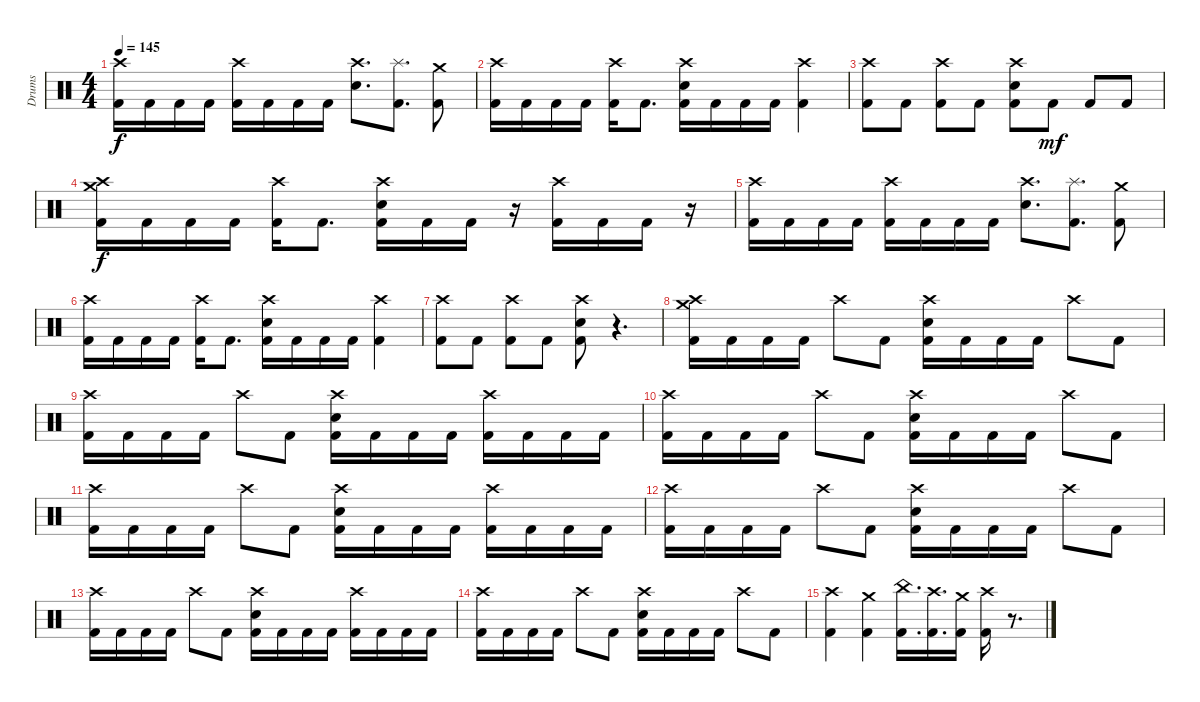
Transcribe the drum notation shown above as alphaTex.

\track ("Drums" "Drums") {instrument percussion}
\staff {score}
\articulation defaults
\ts (4 4)
\tempo 145
\clef neutral
\ks c
("Crash high (hit)" "Kick (hit) 2").16{dy f} "Kick (hit) 2".16 "Kick (hit) 2".16 "Kick (hit) 2".16 ("Crash high (hit)" "Kick (hit) 2").16 "Kick (hit) 2".16 "Kick (hit) 2".16 "Kick (hit) 2".16 ("Crash high (hit)" "Electric Snare (hit)").8{d} ("Splash (hit)" "Kick (hit) 2").8{d} ("Crash medium (hit)" "Kick (hit) 2").8 |
("Crash high (hit)" "Kick (hit) 2").16 "Kick (hit) 2".16 "Kick (hit) 2".16 "Kick (hit) 2".16 ("Crash high (hit)" "Kick (hit) 2").16 "Kick (hit) 2".8{d} ("Crash high (hit)" "Electric Snare (hit)" "Kick (hit) 2").16 "Kick (hit) 2".16 "Kick (hit) 2".16 "Kick (hit) 2".16 ("Crash high (hit)" "Kick (hit) 2").4 |
("Crash high (hit)" "Kick (hit) 2").8 "Kick (hit) 2".8 ("Crash high (hit)" "Kick (hit) 2").8 "Kick (hit) 2".8 ("Crash high (hit)" "Electric Snare (hit)" "Kick (hit) 2").8 "Kick (hit) 2".8{dy mf} "Kick (hit) 2".8 "Kick (hit) 2".8 |
("Crash high (hit)" "Crash medium (hit)" "Kick (hit) 2").16{dy f} "Kick (hit) 2".16 "Kick (hit) 2".16 "Kick (hit) 2".16 ("Crash high (hit)" "Kick (hit) 2").16 "Kick (hit) 2".8{d} ("Crash high (hit)" "Electric Snare (hit)" "Kick (hit) 2").16 "Kick (hit) 2".16 "Kick (hit) 2".16 r.16 ("Crash high (hit)" "Kick (hit) 2").16 "Kick (hit) 2".16 "Kick (hit) 2".16 r.16 |
("Crash high (hit)" "Kick (hit) 2").16 "Kick (hit) 2".16 "Kick (hit) 2".16 "Kick (hit) 2".16 ("Crash high (hit)" "Kick (hit) 2").16 "Kick (hit) 2".16 "Kick (hit) 2".16 "Kick (hit) 2".16 ("Crash high (hit)" "Electric Snare (hit)").8{d} ("Splash (hit)" "Kick (hit) 2").8{d} ("Crash medium (hit)" "Kick (hit) 2").8 |
("Crash high (hit)" "Kick (hit) 2").16 "Kick (hit) 2".16 "Kick (hit) 2".16 "Kick (hit) 2".16 ("Crash high (hit)" "Kick (hit) 2").16 "Kick (hit) 2".8{d} ("Crash high (hit)" "Electric Snare (hit)" "Kick (hit) 2").16 "Kick (hit) 2".16 "Kick (hit) 2".16 "Kick (hit) 2".16 ("Crash high (hit)" "Kick (hit) 2").4 |
("Crash high (hit)" "Kick (hit) 2").8 "Kick (hit) 2".8 ("Crash high (hit)" "Kick (hit) 2").8 "Kick (hit) 2".8 ("Crash high (hit)" "Electric Snare (hit)" "Kick (hit) 2").8 r.4{d} |
("Crash high (hit)" "Crash medium (hit)" "Kick (hit) 2").16 "Kick (hit) 2".16 "Kick (hit) 2".16 "Kick (hit) 2".16 "Crash high (hit)".8 "Kick (hit) 2".8 ("Crash high (hit)" "Electric Snare (hit)" "Kick (hit) 2").16 "Kick (hit) 2".16 "Kick (hit) 2".16 "Kick (hit) 2".16 "Crash high (hit)".8 "Kick (hit) 2".8 |
("Crash high (hit)" "Kick (hit) 2").16 "Kick (hit) 2".16 "Kick (hit) 2".16 "Kick (hit) 2".16 "Crash high (hit)".8 "Kick (hit) 2".8 ("Crash high (hit)" "Electric Snare (hit)" "Kick (hit) 2").16 "Kick (hit) 2".16 "Kick (hit) 2".16 "Kick (hit) 2".16 ("Crash high (hit)" "Kick (hit) 2").16 "Kick (hit) 2".16 "Kick (hit) 2".16 "Kick (hit) 2".16 |
("Crash high (hit)" "Kick (hit) 2").16 "Kick (hit) 2".16 "Kick (hit) 2".16 "Kick (hit) 2".16 "Crash high (hit)".8 "Kick (hit) 2".8 ("Crash high (hit)" "Electric Snare (hit)" "Kick (hit) 2").16 "Kick (hit) 2".16 "Kick (hit) 2".16 "Kick (hit) 2".16 "Crash high (hit)".8 "Kick (hit) 2".8 |
("Crash high (hit)" "Kick (hit) 2").16 "Kick (hit) 2".16 "Kick (hit) 2".16 "Kick (hit) 2".16 "Crash high (hit)".8 "Kick (hit) 2".8 ("Crash high (hit)" "Electric Snare (hit)" "Kick (hit) 2").16 "Kick (hit) 2".16 "Kick (hit) 2".16 "Kick (hit) 2".16 ("Crash high (hit)" "Kick (hit) 2").16 "Kick (hit) 2".16 "Kick (hit) 2".16 "Kick (hit) 2".16 |
("Crash high (hit)" "Kick (hit) 2").16 "Kick (hit) 2".16 "Kick (hit) 2".16 "Kick (hit) 2".16 "Crash high (hit)".8 "Kick (hit) 2".8 ("Crash high (hit)" "Electric Snare (hit)" "Kick (hit) 2").16 "Kick (hit) 2".16 "Kick (hit) 2".16 "Kick (hit) 2".16 "Crash high (hit)".8 "Kick (hit) 2".8 |
("Crash high (hit)" "Kick (hit) 2").16 "Kick (hit) 2".16 "Kick (hit) 2".16 "Kick (hit) 2".16 "Crash high (hit)".8 "Kick (hit) 2".8 ("Crash high (hit)" "Electric Snare (hit)" "Kick (hit) 2").16 "Kick (hit) 2".16 "Kick (hit) 2".16 "Kick (hit) 2".16 ("Crash high (hit)" "Kick (hit) 2").16 "Kick (hit) 2".16 "Kick (hit) 2".16 "Kick (hit) 2".16 |
("Crash high (hit)" "Kick (hit) 2").16 "Kick (hit) 2".16 "Kick (hit) 2".16 "Kick (hit) 2".16 "Crash high (hit)".8 "Kick (hit) 2".8 ("Crash high (hit)" "Electric Snare (hit)" "Kick (hit) 2").16 "Kick (hit) 2".16 "Kick (hit) 2".16 "Kick (hit) 2".16 "Crash high (hit)".8 "Kick (hit) 2".8 |
("Crash high (hit)" "Kick (hit) 2").4 ("Crash medium (hit)" "Kick (hit) 2").4 ("China (hit)" "Kick (hit) 2").16{d} ("Crash high (hit)" "Kick (hit) 2").16{d} ("Crash medium (hit)" "Kick (hit) 2").16 ("Crash high (hit)" "Kick (hit) 2").16 r.8{d}
